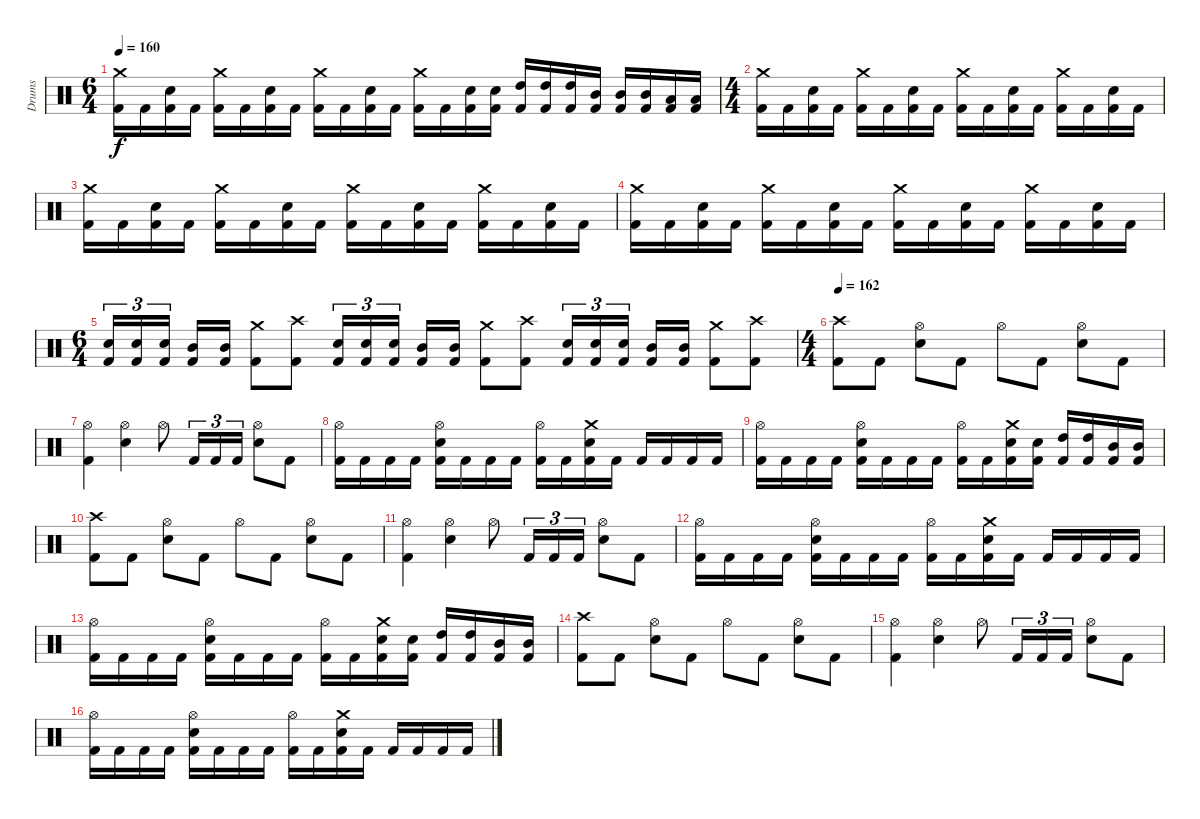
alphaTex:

\track ("Drums" "Drums") {instrument percussion}
\staff {score}
\articulation defaults
\ts (6 4)
\tempo 160
\clef neutral
\ks c
("Kick (hit) 2" "Crash medium (hit)").16{dy f} "Kick (hit) 2".16 ("Kick (hit) 2" "Electric Snare (hit)").16 "Kick (hit) 2".16 ("Kick (hit) 2" "Crash medium (hit)").16 "Kick (hit) 2".16 ("Kick (hit) 2" "Electric Snare (hit)").16 "Kick (hit) 2".16 ("Kick (hit) 2" "Crash medium (hit)").16 "Kick (hit) 2".16 ("Kick (hit) 2" "Electric Snare (hit)").16 "Kick (hit) 2".16 ("Kick (hit) 2" "Crash medium (hit)").16 "Kick (hit) 2".16 ("Kick (hit) 2" "Electric Snare (hit)").16 ("Kick (hit) 2" "Electric Snare (hit)").16 ("Kick (hit) 2" "High Tom (hit)").16 ("Kick (hit) 2" "High Tom (hit)").16 ("Kick (hit) 2" "High Tom (hit)").16 ("Kick (hit) 2" "Mid Tom (hit)").16 ("Kick (hit) 2" "Mid Tom (hit)").16 ("Kick (hit) 2" "Mid Tom (hit)").16 ("Kick (hit) 2" "Low Tom (hit)").16 ("Kick (hit) 2" "Low Tom (hit)").16 |
\ts (4 4)
("Kick (hit) 2" "Crash medium (hit)").16 "Kick (hit) 2".16 ("Kick (hit) 2" "Electric Snare (hit)").16 "Kick (hit) 2".16 ("Kick (hit) 2" "Crash medium (hit)").16 "Kick (hit) 2".16 ("Kick (hit) 2" "Electric Snare (hit)").16 "Kick (hit) 2".16 ("Kick (hit) 2" "Crash medium (hit)").16 "Kick (hit) 2".16 ("Kick (hit) 2" "Electric Snare (hit)").16 "Kick (hit) 2".16 ("Kick (hit) 2" "Crash medium (hit)").16 "Kick (hit) 2".16 ("Kick (hit) 2" "Electric Snare (hit)").16 "Kick (hit) 2".16 |
("Kick (hit) 2" "Crash medium (hit)").16 "Kick (hit) 2".16 ("Kick (hit) 2" "Electric Snare (hit)").16 "Kick (hit) 2".16 ("Kick (hit) 2" "Crash medium (hit)").16 "Kick (hit) 2".16 ("Kick (hit) 2" "Electric Snare (hit)").16 "Kick (hit) 2".16 ("Kick (hit) 2" "Crash medium (hit)").16 "Kick (hit) 2".16 ("Kick (hit) 2" "Electric Snare (hit)").16 "Kick (hit) 2".16 ("Kick (hit) 2" "Crash medium (hit)").16 "Kick (hit) 2".16 ("Kick (hit) 2" "Electric Snare (hit)").16 "Kick (hit) 2".16 |
("Kick (hit) 2" "Crash medium (hit)").16 "Kick (hit) 2".16 ("Kick (hit) 2" "Electric Snare (hit)").16 "Kick (hit) 2".16 ("Kick (hit) 2" "Crash medium (hit)").16 "Kick (hit) 2".16 ("Kick (hit) 2" "Electric Snare (hit)").16 "Kick (hit) 2".16 ("Kick (hit) 2" "Crash medium (hit)").16 "Kick (hit) 2".16 ("Kick (hit) 2" "Electric Snare (hit)").16 "Kick (hit) 2".16 ("Kick (hit) 2" "Crash medium (hit)").16 "Kick (hit) 2".16 ("Kick (hit) 2" "Electric Snare (hit)").16 "Kick (hit) 2".16 |
\ts (6 4)
("Kick (hit) 2" "Electric Snare (hit)").16{tu (3 2)} ("Kick (hit) 2" "Electric Snare (hit)").16{tu (3 2)} ("Kick (hit) 2" "Electric Snare (hit)").16{tu (3 2)} ("Kick (hit) 2" "Mid Tom (hit)").16 ("Kick (hit) 2" "Mid Tom (hit)").16 ("Kick (hit) 2" "Crash medium (hit)").8 ("Kick (hit) 2" "Crash high (hit)").8 ("Kick (hit) 2" "Electric Snare (hit)").16{tu (3 2)} ("Kick (hit) 2" "Electric Snare (hit)").16{tu (3 2)} ("Kick (hit) 2" "Electric Snare (hit)").16{tu (3 2)} ("Kick (hit) 2" "Mid Tom (hit)").16 ("Kick (hit) 2" "Mid Tom (hit)").16 ("Kick (hit) 2" "Crash medium (hit)").8 ("Kick (hit) 2" "Crash high (hit)").8 ("Kick (hit) 2" "Electric Snare (hit)").16{tu (3 2)} ("Kick (hit) 2" "Electric Snare (hit)").16{tu (3 2)} ("Kick (hit) 2" "Electric Snare (hit)").16{tu (3 2)} ("Kick (hit) 2" "Mid Tom (hit)").16 ("Kick (hit) 2" "Mid Tom (hit)").16 ("Kick (hit) 2" "Crash medium (hit)").8 ("Kick (hit) 2" "Crash high (hit)").8 |
\ts (4 4)
\tempo 162
("Kick (hit) 2" "Crash high (hit)").8 "Kick (hit) 2".8 ("Electric Snare (hit)" "Hi-Hat (open)").8 "Kick (hit) 2".8 "Hi-Hat (open)".8 "Kick (hit) 2".8 ("Electric Snare (hit)" "Hi-Hat (open)").8 "Kick (hit) 2".8 |
("Kick (hit) 2" "Hi-Hat (open)").4 ("Electric Snare (hit)" "Hi-Hat (open)").4 "Hi-Hat (open)".8 "Kick (hit) 2".16{tu (3 2)} "Kick (hit) 2".16{tu (3 2)} "Kick (hit) 2".16{tu (3 2)} ("Electric Snare (hit)" "Hi-Hat (open)").8 "Kick (hit) 2".8 |
("Kick (hit) 2" "Hi-Hat (open)").16 "Kick (hit) 2".16 "Kick (hit) 2".16 "Kick (hit) 2".16 ("Kick (hit) 2" "Electric Snare (hit)" "Hi-Hat (open)").16 "Kick (hit) 2".16 "Kick (hit) 2".16 "Kick (hit) 2".16 ("Kick (hit) 2" "Hi-Hat (open)").16 "Kick (hit) 2".16 ("Kick (hit) 2" "Electric Snare (hit)" "Crash medium (hit)").16 "Kick (hit) 2".16 "Kick (hit) 2".16 "Kick (hit) 2".16 "Kick (hit) 2".16 "Kick (hit) 2".16 |
("Kick (hit) 2" "Hi-Hat (open)").16 "Kick (hit) 2".16 "Kick (hit) 2".16 "Kick (hit) 2".16 ("Kick (hit) 2" "Electric Snare (hit)" "Hi-Hat (open)").16 "Kick (hit) 2".16 "Kick (hit) 2".16 "Kick (hit) 2".16 ("Kick (hit) 2" "Hi-Hat (open)").16 "Kick (hit) 2".16 ("Kick (hit) 2" "Electric Snare (hit)" "Crash medium (hit)").16 ("Kick (hit) 2" "Electric Snare (hit)").16 ("Kick (hit) 2" "High Tom (hit)").16 ("Kick (hit) 2" "High Tom (hit)").16 ("Kick (hit) 2" "Mid Tom (hit)").16 ("Kick (hit) 2" "Mid Tom (hit)").16 |
("Kick (hit) 2" "Crash high (hit)").8 "Kick (hit) 2".8 ("Electric Snare (hit)" "Hi-Hat (open)").8 "Kick (hit) 2".8 "Hi-Hat (open)".8 "Kick (hit) 2".8 ("Electric Snare (hit)" "Hi-Hat (open)").8 "Kick (hit) 2".8 |
("Kick (hit) 2" "Hi-Hat (open)").4 ("Electric Snare (hit)" "Hi-Hat (open)").4 "Hi-Hat (open)".8 "Kick (hit) 2".16{tu (3 2)} "Kick (hit) 2".16{tu (3 2)} "Kick (hit) 2".16{tu (3 2)} ("Electric Snare (hit)" "Hi-Hat (open)").8 "Kick (hit) 2".8 |
("Kick (hit) 2" "Hi-Hat (open)").16 "Kick (hit) 2".16 "Kick (hit) 2".16 "Kick (hit) 2".16 ("Kick (hit) 2" "Electric Snare (hit)" "Hi-Hat (open)").16 "Kick (hit) 2".16 "Kick (hit) 2".16 "Kick (hit) 2".16 ("Kick (hit) 2" "Hi-Hat (open)").16 "Kick (hit) 2".16 ("Kick (hit) 2" "Electric Snare (hit)" "Crash medium (hit)").16 "Kick (hit) 2".16 "Kick (hit) 2".16 "Kick (hit) 2".16 "Kick (hit) 2".16 "Kick (hit) 2".16 |
("Kick (hit) 2" "Hi-Hat (open)").16 "Kick (hit) 2".16 "Kick (hit) 2".16 "Kick (hit) 2".16 ("Kick (hit) 2" "Electric Snare (hit)" "Hi-Hat (open)").16 "Kick (hit) 2".16 "Kick (hit) 2".16 "Kick (hit) 2".16 ("Kick (hit) 2" "Hi-Hat (open)").16 "Kick (hit) 2".16 ("Kick (hit) 2" "Electric Snare (hit)" "Crash medium (hit)").16 ("Kick (hit) 2" "Electric Snare (hit)").16 ("Kick (hit) 2" "High Tom (hit)").16 ("Kick (hit) 2" "High Tom (hit)").16 ("Kick (hit) 2" "Mid Tom (hit)").16 ("Kick (hit) 2" "Mid Tom (hit)").16 |
("Kick (hit) 2" "Crash high (hit)").8 "Kick (hit) 2".8 ("Electric Snare (hit)" "Hi-Hat (open)").8 "Kick (hit) 2".8 "Hi-Hat (open)".8 "Kick (hit) 2".8 ("Electric Snare (hit)" "Hi-Hat (open)").8 "Kick (hit) 2".8 |
("Kick (hit) 2" "Hi-Hat (open)").4 ("Electric Snare (hit)" "Hi-Hat (open)").4 "Hi-Hat (open)".8 "Kick (hit) 2".16{tu (3 2)} "Kick (hit) 2".16{tu (3 2)} "Kick (hit) 2".16{tu (3 2)} ("Electric Snare (hit)" "Hi-Hat (open)").8 "Kick (hit) 2".8 |
("Kick (hit) 2" "Hi-Hat (open)").16 "Kick (hit) 2".16 "Kick (hit) 2".16 "Kick (hit) 2".16 ("Kick (hit) 2" "Electric Snare (hit)" "Hi-Hat (open)").16 "Kick (hit) 2".16 "Kick (hit) 2".16 "Kick (hit) 2".16 ("Kick (hit) 2" "Hi-Hat (open)").16 "Kick (hit) 2".16 ("Kick (hit) 2" "Electric Snare (hit)" "Crash medium (hit)").16 "Kick (hit) 2".16 "Kick (hit) 2".16 "Kick (hit) 2".16 "Kick (hit) 2".16 "Kick (hit) 2".16
